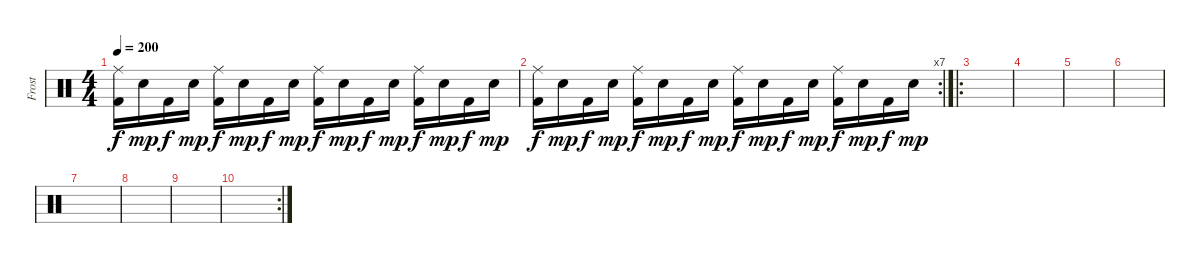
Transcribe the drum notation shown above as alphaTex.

\track ("Frost" "Frost") {instrument percussion}
\staff {score}
\articulation defaults
\ts (4 4)
\tempo 200
\clef neutral
\ks c
("Ride (middle)" "Kick (hit) 2").16{dy f} "Electric Snare (hit)".16{dy mp} "Kick (hit) 2".16{dy f} "Electric Snare (hit)".16{dy mp} ("Ride (middle)" "Kick (hit) 2").16{dy f} "Electric Snare (hit)".16{dy mp} "Kick (hit) 2".16{dy f} "Electric Snare (hit)".16{dy mp} ("Ride (middle)" "Kick (hit) 2").16{dy f} "Electric Snare (hit)".16{dy mp} "Kick (hit) 2".16{dy f} "Electric Snare (hit)".16{dy mp} ("Ride (middle)" "Kick (hit) 2").16{dy f} "Electric Snare (hit)".16{dy mp} "Kick (hit) 2".16{dy f} "Electric Snare (hit)".16{dy mp} |
\rc 7
("Ride (middle)" "Kick (hit) 2").16{dy f} "Electric Snare (hit)".16{dy mp} "Kick (hit) 2".16{dy f} "Electric Snare (hit)".16{dy mp} ("Ride (middle)" "Kick (hit) 2").16{dy f} "Electric Snare (hit)".16{dy mp} "Kick (hit) 2".16{dy f} "Electric Snare (hit)".16{dy mp} ("Ride (middle)" "Kick (hit) 2").16{dy f} "Electric Snare (hit)".16{dy mp} "Kick (hit) 2".16{dy f} "Electric Snare (hit)".16{dy mp} ("Ride (middle)" "Kick (hit) 2").16{dy f} "Electric Snare (hit)".16{dy mp} "Kick (hit) 2".16{dy f} "Electric Snare (hit)".16{dy mp} |
\ro
|
|
|
|
|
|
|
\rc 2
